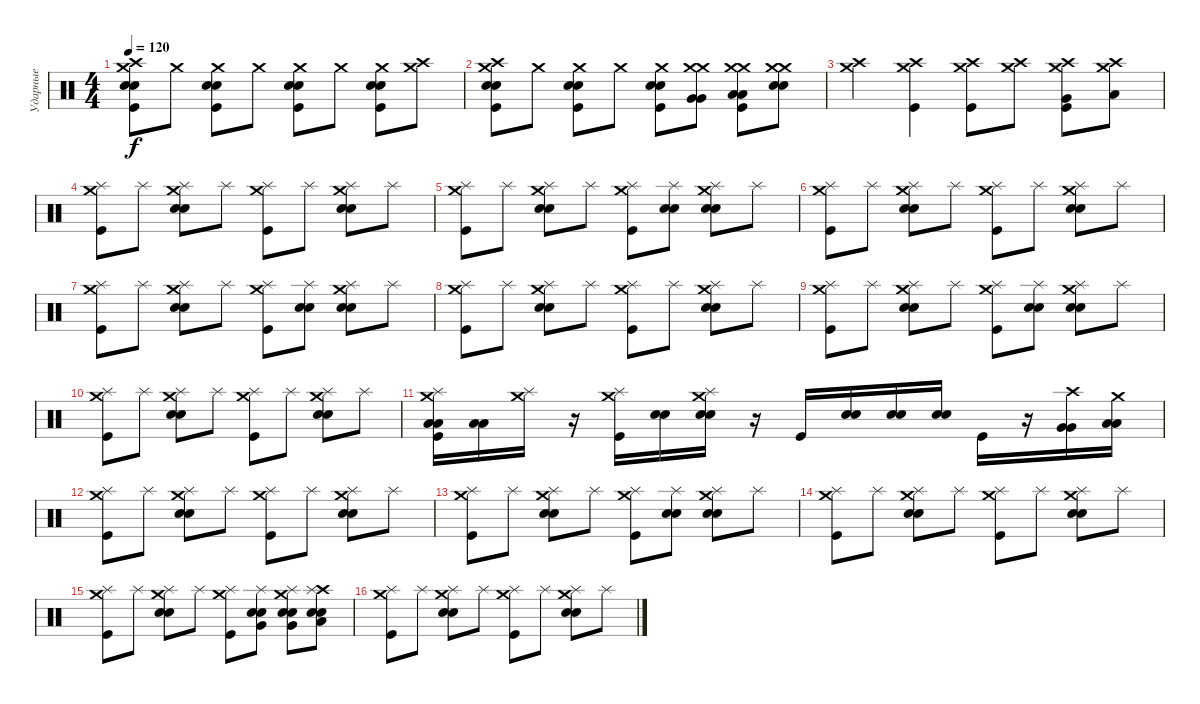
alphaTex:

\track ("Ударные" "Ударные") {instrument percussion}
\staff {score}
\articulation defaults
\ts (4 4)
\tempo 120
\clef neutral
\ks c
("Crash medium (hit)" "Crash high (hit)" "Snare (hit) 2" "Snare (hit) 2" "Kick (hit)").8{dy f} "Crash medium (hit)".8 ("Crash medium (hit)" "Snare (hit) 2" "Snare (hit) 2" "Kick (hit)").8 "Crash medium (hit)".8 ("Crash medium (hit)" "Snare (hit) 2" "Snare (hit) 2" "Kick (hit)").8 "Crash medium (hit)".8 ("Crash medium (hit)" "Snare (hit) 2" "Snare (hit) 2" "Kick (hit)").8 ("Crash medium (hit)" "Crash high (hit)").8 |
("Crash medium (hit)" "Crash high (hit)" "Snare (hit) 2" "Snare (hit) 2" "Kick (hit)").8 "Crash medium (hit)".8 ("Crash medium (hit)" "Snare (hit) 2" "Snare (hit) 2" "Kick (hit)").8 "Crash medium (hit)".8 ("Crash medium (hit)" "Snare (hit) 2" "Snare (hit) 2" "Kick (hit)").8 ("Crash medium (hit)" "Crash medium (hit)" "Very Low Tom (hit)" "Very Low Tom (hit)").8 ("Crash medium (hit)" "Crash medium (hit)" "Low Floor Tom (hit)" "Low Floor Tom (hit)" "Kick (hit)").8 ("Crash medium (hit)" "Crash medium (hit)" "Electric Snare (hit)" "Electric Snare (hit)").8 |
("Crash high (hit)" "Crash medium (hit)").4 ("Crash medium (hit)" "Crash high (hit)" "Kick (hit)").4 ("Crash medium (hit)" "Crash high (hit)" "Kick (hit)").8 ("Crash medium (hit)" "Crash high (hit)").8 ("Crash medium (hit)" "Crash high (hit)" "Very Low Tom (hit)" "Kick (hit)").8 ("Crash medium (hit)" "Crash high (hit)" "Low Floor Tom (hit)").8 |
("Crash medium (hit)" "Splash (hit)" "Kick (hit)").8 "Splash (hit)".8 ("Crash medium (hit)" "Splash (hit)" "Electric Snare (hit)" "Electric Snare (hit)").8 "Splash (hit)".8 ("Crash medium (hit)" "Splash (hit)" "Kick (hit)").8 "Splash (hit)".8 ("Crash medium (hit)" "Splash (hit)" "Electric Snare (hit)" "Electric Snare (hit)").8 "Splash (hit)".8 |
("Crash medium (hit)" "Splash (hit)" "Kick (hit)").8 "Splash (hit)".8 ("Crash medium (hit)" "Splash (hit)" "Electric Snare (hit)" "Electric Snare (hit)").8 "Splash (hit)".8 ("Crash medium (hit)" "Splash (hit)" "Kick (hit)").8 ("Splash (hit)" "Snare (hit) 2" "Snare (hit) 2").8 ("Crash medium (hit)" "Splash (hit)" "Electric Snare (hit)" "Electric Snare (hit)").8 "Splash (hit)".8 |
("Crash medium (hit)" "Splash (hit)" "Kick (hit)").8 "Splash (hit)".8 ("Crash medium (hit)" "Splash (hit)" "Electric Snare (hit)" "Electric Snare (hit)").8 "Splash (hit)".8 ("Crash medium (hit)" "Splash (hit)" "Kick (hit)").8 "Splash (hit)".8 ("Crash medium (hit)" "Splash (hit)" "Electric Snare (hit)" "Electric Snare (hit)").8 "Splash (hit)".8 |
("Crash medium (hit)" "Splash (hit)" "Kick (hit)").8 "Splash (hit)".8 ("Crash medium (hit)" "Splash (hit)" "Electric Snare (hit)" "Electric Snare (hit)").8 "Splash (hit)".8 ("Crash medium (hit)" "Splash (hit)" "Kick (hit)").8 ("Splash (hit)" "Snare (hit) 2" "Snare (hit) 2").8 ("Crash medium (hit)" "Splash (hit)" "Electric Snare (hit)" "Electric Snare (hit)").8 "Splash (hit)".8 |
("Crash medium (hit)" "Splash (hit)" "Kick (hit)").8 "Splash (hit)".8 ("Crash medium (hit)" "Splash (hit)" "Electric Snare (hit)" "Electric Snare (hit)").8 "Splash (hit)".8 ("Crash medium (hit)" "Splash (hit)" "Kick (hit)").8 "Splash (hit)".8 ("Crash medium (hit)" "Splash (hit)" "Electric Snare (hit)" "Electric Snare (hit)").8 "Splash (hit)".8 |
("Crash medium (hit)" "Splash (hit)" "Kick (hit)").8 "Splash (hit)".8 ("Crash medium (hit)" "Splash (hit)" "Electric Snare (hit)" "Electric Snare (hit)").8 "Splash (hit)".8 ("Crash medium (hit)" "Splash (hit)" "Kick (hit)").8 ("Splash (hit)" "Snare (hit) 2" "Snare (hit) 2").8 ("Crash medium (hit)" "Splash (hit)" "Electric Snare (hit)" "Electric Snare (hit)").8 "Splash (hit)".8 |
("Crash medium (hit)" "Splash (hit)" "Kick (hit)").8 "Splash (hit)".8 ("Crash medium (hit)" "Splash (hit)" "Electric Snare (hit)" "Electric Snare (hit)").8 "Splash (hit)".8 ("Crash medium (hit)" "Splash (hit)" "Kick (hit)").8 "Splash (hit)".8 ("Crash medium (hit)" "Splash (hit)" "Electric Snare (hit)" "Electric Snare (hit)").8 "Splash (hit)".8 |
("Crash medium (hit)" "Splash (hit)" "Low Floor Tom (hit)" "Low Floor Tom (hit)" "Kick (hit)").16 ("Low Floor Tom (hit)" "Low Floor Tom (hit)").16 ("Crash medium (hit)" "Splash (hit)").16 r.16 ("Crash medium (hit)" "Splash (hit)" "Kick (hit)").16 ("Snare (hit) 2" "Snare (hit) 2").16 ("Crash medium (hit)" "Splash (hit)" "Electric Snare (hit)" "Electric Snare (hit)").16 r.16 "Kick (hit)".16 ("Electric Snare (hit)" "Electric Snare (hit)").16 ("Electric Snare (hit)" "Electric Snare (hit)").16 ("Snare (hit) 2" "Snare (hit) 2").16 "Kick (hit)".16 r.16 ("Crash high (hit)" "Very Low Tom (hit)" "Very Low Tom (hit)").16 ("Crash medium (hit)" "Low Floor Tom (hit)" "Low Floor Tom (hit)").16 |
("Crash medium (hit)" "Splash (hit)" "Kick (hit)").8 "Splash (hit)".8 ("Crash medium (hit)" "Splash (hit)" "Electric Snare (hit)" "Electric Snare (hit)").8 "Splash (hit)".8 ("Crash medium (hit)" "Splash (hit)" "Kick (hit)").8 "Splash (hit)".8 ("Crash medium (hit)" "Splash (hit)" "Electric Snare (hit)" "Electric Snare (hit)").8 "Splash (hit)".8 |
("Crash medium (hit)" "Splash (hit)" "Kick (hit)").8 "Splash (hit)".8 ("Crash medium (hit)" "Splash (hit)" "Electric Snare (hit)" "Electric Snare (hit)").8 "Splash (hit)".8 ("Crash medium (hit)" "Splash (hit)" "Kick (hit)").8 ("Splash (hit)" "Snare (hit) 2" "Snare (hit) 2").8 ("Crash medium (hit)" "Splash (hit)" "Electric Snare (hit)" "Electric Snare (hit)").8 "Splash (hit)".8 |
("Crash medium (hit)" "Splash (hit)" "Kick (hit)").8 "Splash (hit)".8 ("Crash medium (hit)" "Splash (hit)" "Electric Snare (hit)" "Electric Snare (hit)").8 "Splash (hit)".8 ("Crash medium (hit)" "Splash (hit)" "Kick (hit)").8 "Splash (hit)".8 ("Crash medium (hit)" "Splash (hit)" "Electric Snare (hit)" "Electric Snare (hit)").8 "Splash (hit)".8 |
("Crash medium (hit)" "Splash (hit)" "Kick (hit)").8 "Splash (hit)".8 ("Crash medium (hit)" "Splash (hit)" "Electric Snare (hit)" "Electric Snare (hit)").8 "Splash (hit)".8 ("Crash medium (hit)" "Splash (hit)" "Kick (hit)").8 ("Splash (hit)" "Snare (hit) 2" "Snare (hit) 2" "Very Low Tom (hit)").8 ("Crash medium (hit)" "Splash (hit)" "Electric Snare (hit)" "Electric Snare (hit)" "Very Low Tom (hit)").8 ("Crash high (hit)" "Splash (hit)" "Snare (hit) 2" "Snare (hit) 2" "Low Floor Tom (hit)").8 |
("Crash medium (hit)" "Splash (hit)" "Kick (hit)").8 "Splash (hit)".8 ("Crash medium (hit)" "Splash (hit)" "Electric Snare (hit)" "Electric Snare (hit)").8 "Splash (hit)".8 ("Crash medium (hit)" "Splash (hit)" "Kick (hit)").8 "Splash (hit)".8 ("Crash medium (hit)" "Splash (hit)" "Electric Snare (hit)" "Electric Snare (hit)").8 "Splash (hit)".8
